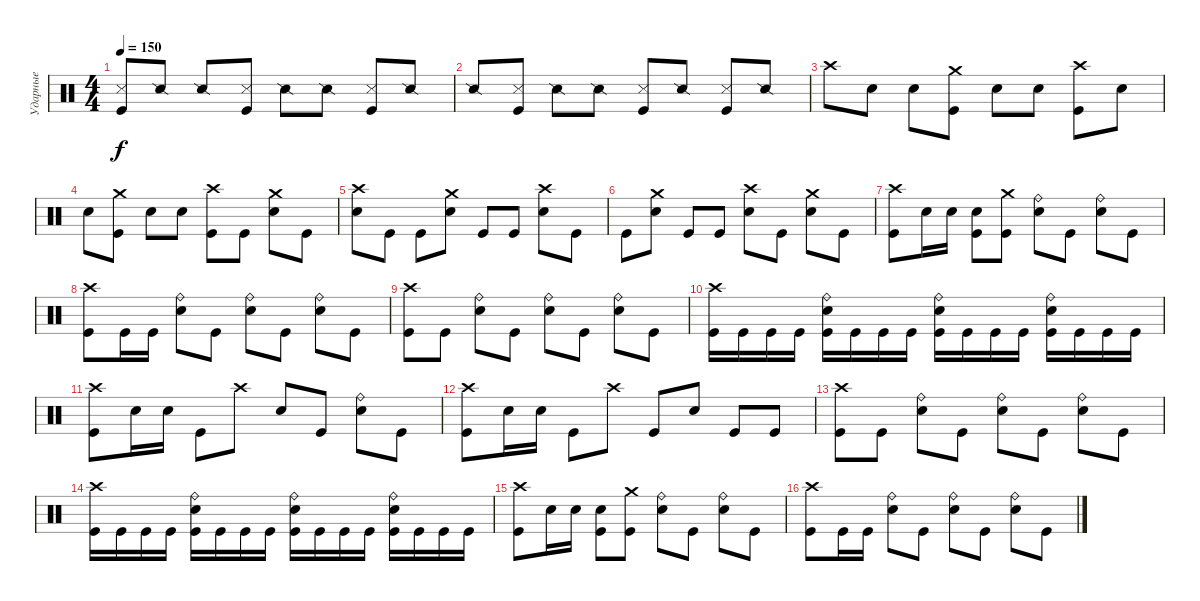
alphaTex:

\track ("Ударные" "Ударные") {instrument percussion}
\staff {score}
\articulation defaults
\ts (4 4)
\tempo 150
\clef neutral
\ks c
("Snare (side stick) 3" "Kick (hit)").8{dy f} "Snare (side stick) 2".8 "Snare (side stick) 2".8 ("Snare (side stick) 3" "Kick (hit)").8 "Snare (side stick) 2".8 "Snare (side stick) 2".8 ("Snare (side stick) 3" "Kick (hit)").8 "Snare (side stick) 2".8 |
"Snare (side stick) 2".8 ("Snare (side stick) 3" "Kick (hit)").8 "Snare (side stick) 2".8 "Snare (side stick) 2".8 ("Snare (side stick) 3" "Kick (hit)").8 "Snare (side stick) 2".8 ("Snare (side stick) 3" "Kick (hit)").8 "Snare (side stick) 2".8 |
"Crash high (hit)".8 "Electric Snare (hit)".8 "Electric Snare (hit)".8 ("Kick (hit)" "Crash medium (hit)").8 "Electric Snare (hit)".8 "Electric Snare (hit)".8 ("Kick (hit)" "Crash high (hit)").8 "Electric Snare (hit)".8 |
"Electric Snare (hit)".8 ("Kick (hit)" "Crash medium (hit)").8 "Electric Snare (hit)".8 "Electric Snare (hit)".8 ("Kick (hit)" "Crash high (hit)").8 "Kick (hit)".8 ("Electric Snare (hit)" "Crash medium (hit)").8 "Kick (hit)".8 |
("Crash high (hit)" "Electric Snare (hit)").8 "Kick (hit)".8 "Kick (hit)".8 ("Electric Snare (hit)" "Crash medium (hit)").8 "Kick (hit)".8 "Kick (hit)".8 ("Electric Snare (hit)" "Crash high (hit)").8 "Kick (hit)".8 |
"Kick (hit)".8 ("Electric Snare (hit)" "Crash medium (hit)").8 "Kick (hit)".8 "Kick (hit)".8 ("Electric Snare (hit)" "Crash high (hit)").8 "Kick (hit)".8 ("Electric Snare (hit)" "Crash medium (hit)").8 "Kick (hit)".8 |
("Crash high (hit)" "Kick (hit)").8 "Electric Snare (hit)".16 "Electric Snare (hit)".16 ("Electric Snare (hit)" "Kick (hit)").8 ("Crash medium (hit)" "Kick (hit)").8 ("Ride (bell)" "Electric Snare (hit)").8 "Kick (hit)".8 ("Ride (bell)" "Electric Snare (hit)").8 "Kick (hit)".8 |
("Crash high (hit)" "Kick (hit)").8 "Kick (hit)".16 "Kick (hit)".16 ("Ride (bell)" "Electric Snare (hit)").8 "Kick (hit)".8 ("Ride (bell)" "Electric Snare (hit)").8 "Kick (hit)".8 ("Ride (bell)" "Electric Snare (hit)").8 "Kick (hit)".8 |
("Crash high (hit)" "Kick (hit)").8 "Kick (hit)".8 ("Ride (bell)" "Electric Snare (hit)").8 "Kick (hit)".8 ("Ride (bell)" "Electric Snare (hit)").8 "Kick (hit)".8 ("Ride (bell)" "Electric Snare (hit)").8 "Kick (hit)".8 |
("Crash high (hit)" "Kick (hit)").16 "Kick (hit)".16 "Kick (hit)".16 "Kick (hit)".16 ("Ride (bell)" "Electric Snare (hit)" "Kick (hit)").16 "Kick (hit)".16 "Kick (hit)".16 "Kick (hit)".16 ("Ride (bell)" "Electric Snare (hit)" "Kick (hit)").16 "Kick (hit)".16 "Kick (hit)".16 "Kick (hit)".16 ("Ride (bell)" "Electric Snare (hit)" "Kick (hit)").16 "Kick (hit)".16 "Kick (hit)".16 "Kick (hit)".16 |
("Crash high (hit)" "Kick (hit)").8 "Electric Snare (hit)".16 "Electric Snare (hit)".16 "Kick (hit)".8 "Crash high (hit)".8 "Electric Snare (hit)".8 "Kick (hit)".8 ("Ride (bell)" "Electric Snare (hit)").8 "Kick (hit)".8 |
("Crash high (hit)" "Kick (hit)").8 "Electric Snare (hit)".16 "Electric Snare (hit)".16 "Kick (hit)".8 "Crash high (hit)".8 "Kick (hit)".8 "Electric Snare (hit)".8 "Kick (hit)".8 "Kick (hit)".8 |
("Crash high (hit)" "Kick (hit)").8 "Kick (hit)".8 ("Ride (bell)" "Electric Snare (hit)").8 "Kick (hit)".8 ("Ride (bell)" "Electric Snare (hit)").8 "Kick (hit)".8 ("Ride (bell)" "Electric Snare (hit)").8 "Kick (hit)".8 |
("Crash high (hit)" "Kick (hit)").16 "Kick (hit)".16 "Kick (hit)".16 "Kick (hit)".16 ("Ride (bell)" "Electric Snare (hit)" "Kick (hit)").16 "Kick (hit)".16 "Kick (hit)".16 "Kick (hit)".16 ("Ride (bell)" "Electric Snare (hit)" "Kick (hit)").16 "Kick (hit)".16 "Kick (hit)".16 "Kick (hit)".16 ("Ride (bell)" "Electric Snare (hit)" "Kick (hit)").16 "Kick (hit)".16 "Kick (hit)".16 "Kick (hit)".16 |
("Crash high (hit)" "Kick (hit)").8 "Electric Snare (hit)".16 "Electric Snare (hit)".16 ("Electric Snare (hit)" "Kick (hit)").8 ("Crash medium (hit)" "Kick (hit)").8 ("Ride (bell)" "Electric Snare (hit)").8 "Kick (hit)".8 ("Ride (bell)" "Electric Snare (hit)").8 "Kick (hit)".8 |
("Crash high (hit)" "Kick (hit)").8 "Kick (hit)".16 "Kick (hit)".16 ("Ride (bell)" "Electric Snare (hit)").8 "Kick (hit)".8 ("Ride (bell)" "Electric Snare (hit)").8 "Kick (hit)".8 ("Ride (bell)" "Electric Snare (hit)").8 "Kick (hit)".8
